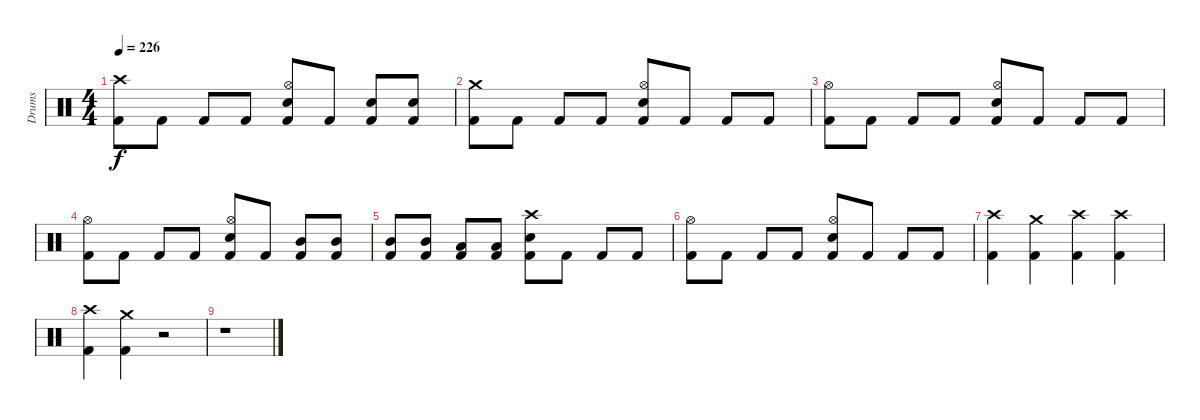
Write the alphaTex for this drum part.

\track ("Drums" "Drums") {instrument percussion}
\staff {score}
\articulation defaults
\ts (4 4)
\tempo 226
\clef neutral
\ks c
("Crash high (hit)" "Kick (hit) 2").8{dy f} "Kick (hit) 2".8 "Kick (hit) 2".8 "Kick (hit) 2".8 ("Hi-Hat (open)" "Snare (hit) 2" "Kick (hit) 2").8 "Kick (hit) 2".8 ("Snare (hit) 2" "Kick (hit) 2").8 ("Snare (hit) 2" "Kick (hit) 2").8 |
("Crash medium (hit)" "Kick (hit) 2").8 "Kick (hit) 2".8 "Kick (hit) 2".8 "Kick (hit) 2".8 ("Hi-Hat (open)" "Snare (hit) 2" "Kick (hit) 2").8 "Kick (hit) 2".8 "Kick (hit) 2".8 "Kick (hit) 2".8 |
("Hi-Hat (open)" "Kick (hit) 2").8 "Kick (hit) 2".8 "Kick (hit) 2".8 "Kick (hit) 2".8 ("Hi-Hat (open)" "Snare (hit) 2" "Kick (hit) 2").8 "Kick (hit) 2".8 "Kick (hit) 2".8 "Kick (hit) 2".8 |
("Hi-Hat (open)" "Kick (hit) 2").8 "Kick (hit) 2".8 "Kick (hit) 2".8 "Kick (hit) 2".8 ("Hi-Hat (open)" "Snare (hit) 2" "Kick (hit) 2").8 "Kick (hit) 2".8 ("Mid Tom (hit)" "Kick (hit) 2").8 ("Mid Tom (hit)" "Kick (hit) 2").8 |
("Mid Tom (hit)" "Kick (hit) 2").8 ("Mid Tom (hit)" "Kick (hit) 2").8 ("Low Tom (hit)" "Kick (hit) 2").8 ("Low Tom (hit)" "Kick (hit) 2").8 ("Crash high (hit)" "Snare (hit) 2" "Kick (hit) 2").8 "Kick (hit) 2".8 "Kick (hit) 2".8 "Kick (hit) 2".8 |
("Hi-Hat (open)" "Kick (hit) 2").8 "Kick (hit) 2".8 "Kick (hit) 2".8 "Kick (hit) 2".8 ("Hi-Hat (open)" "Snare (hit) 2" "Kick (hit) 2").8 "Kick (hit) 2".8 "Kick (hit) 2".8 "Kick (hit) 2".8 |
("Crash high (hit)" "Kick (hit) 2").4 ("Crash medium (hit)" "Kick (hit) 2").4 ("Crash high (hit)" "Kick (hit) 2").4 ("Crash high (hit)" "Kick (hit) 2").4 |
("Crash high (hit)" "Kick (hit) 2").4 ("Crash medium (hit)" "Kick (hit) 2").4 r.2 |
r.1
